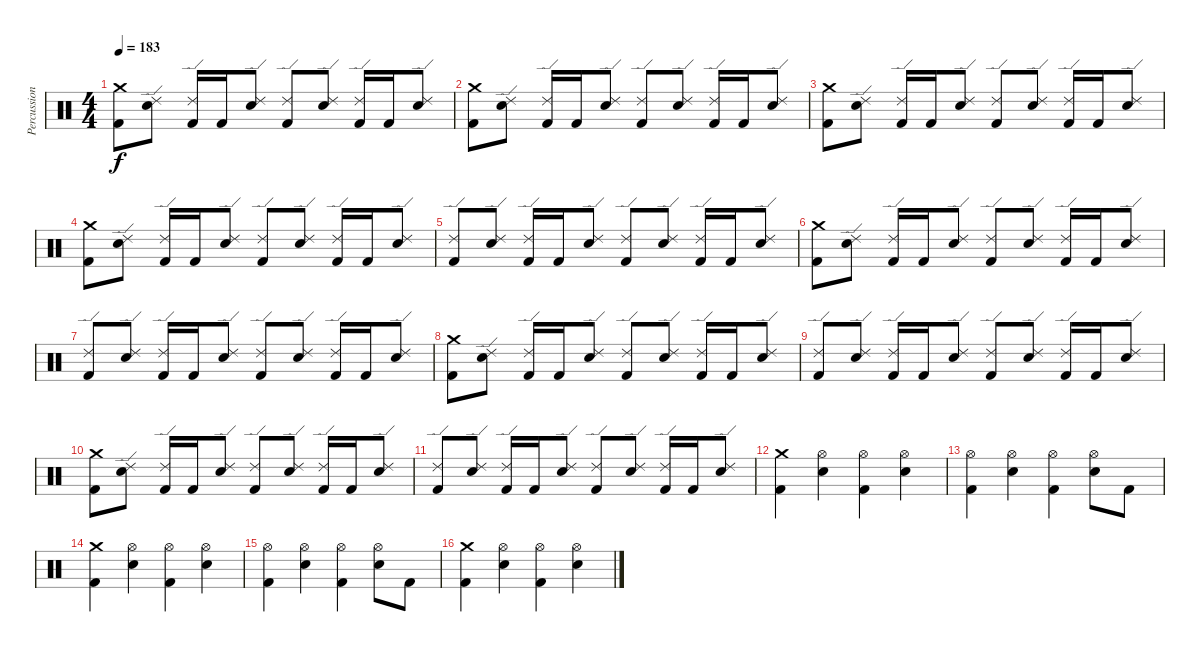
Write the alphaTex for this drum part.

\track ("Percussion" "Percussion") {instrument percussion}
\staff {score}
\articulation defaults
\ts (4 4)
\tempo 183
\clef neutral
\ks c
("Crash medium (hit)" "Kick (hit) 2").8{dy f} ("Ride (edge) 2" "Snare (hit) 2").8 ("Ride (edge) 2" "Kick (hit) 2").16 "Kick (hit) 2".16 ("Ride (edge) 2" "Snare (hit) 2").8 ("Ride (edge) 2" "Kick (hit) 2").8 ("Ride (edge) 2" "Snare (hit) 2").8 ("Ride (edge) 2" "Kick (hit) 2").16 "Kick (hit) 2".16 ("Ride (edge) 2" "Snare (hit) 2").8 |
("Crash medium (hit)" "Kick (hit) 2").8 ("Ride (edge) 2" "Snare (hit) 2").8 ("Ride (edge) 2" "Kick (hit) 2").16 "Kick (hit) 2".16 ("Ride (edge) 2" "Snare (hit) 2").8 ("Ride (edge) 2" "Kick (hit) 2").8 ("Ride (edge) 2" "Snare (hit) 2").8 ("Ride (edge) 2" "Kick (hit) 2").16 "Kick (hit) 2".16 ("Ride (edge) 2" "Snare (hit) 2").8 |
("Crash medium (hit)" "Kick (hit) 2").8 ("Ride (edge) 2" "Snare (hit) 2").8 ("Ride (edge) 2" "Kick (hit) 2").16 "Kick (hit) 2".16 ("Ride (edge) 2" "Snare (hit) 2").8 ("Ride (edge) 2" "Kick (hit) 2").8 ("Ride (edge) 2" "Snare (hit) 2").8 ("Ride (edge) 2" "Kick (hit) 2").16 "Kick (hit) 2".16 ("Ride (edge) 2" "Snare (hit) 2").8 |
("Crash medium (hit)" "Kick (hit) 2").8 ("Ride (edge) 2" "Snare (hit) 2").8 ("Ride (edge) 2" "Kick (hit) 2").16 "Kick (hit) 2".16 ("Ride (edge) 2" "Snare (hit) 2").8 ("Ride (edge) 2" "Kick (hit) 2").8 ("Ride (edge) 2" "Snare (hit) 2").8 ("Ride (edge) 2" "Kick (hit) 2").16 "Kick (hit) 2".16 ("Ride (edge) 2" "Snare (hit) 2").8 |
("Ride (edge) 2" "Kick (hit) 2").8 ("Ride (edge) 2" "Snare (hit) 2").8 ("Ride (edge) 2" "Kick (hit) 2").16 "Kick (hit) 2".16 ("Ride (edge) 2" "Snare (hit) 2").8 ("Ride (edge) 2" "Kick (hit) 2").8 ("Ride (edge) 2" "Snare (hit) 2").8 ("Ride (edge) 2" "Kick (hit) 2").16 "Kick (hit) 2".16 ("Ride (edge) 2" "Snare (hit) 2").8 |
("Crash medium (hit)" "Kick (hit) 2").8 ("Ride (edge) 2" "Snare (hit) 2").8 ("Ride (edge) 2" "Kick (hit) 2").16 "Kick (hit) 2".16 ("Ride (edge) 2" "Snare (hit) 2").8 ("Ride (edge) 2" "Kick (hit) 2").8 ("Ride (edge) 2" "Snare (hit) 2").8 ("Ride (edge) 2" "Kick (hit) 2").16 "Kick (hit) 2".16 ("Ride (edge) 2" "Snare (hit) 2").8 |
("Ride (edge) 2" "Kick (hit) 2").8 ("Ride (edge) 2" "Snare (hit) 2").8 ("Ride (edge) 2" "Kick (hit) 2").16 "Kick (hit) 2".16 ("Ride (edge) 2" "Snare (hit) 2").8 ("Ride (edge) 2" "Kick (hit) 2").8 ("Ride (edge) 2" "Snare (hit) 2").8 ("Ride (edge) 2" "Kick (hit) 2").16 "Kick (hit) 2".16 ("Ride (edge) 2" "Snare (hit) 2").8 |
("Crash medium (hit)" "Kick (hit) 2").8 ("Ride (edge) 2" "Snare (hit) 2").8 ("Ride (edge) 2" "Kick (hit) 2").16 "Kick (hit) 2".16 ("Ride (edge) 2" "Snare (hit) 2").8 ("Ride (edge) 2" "Kick (hit) 2").8 ("Ride (edge) 2" "Snare (hit) 2").8 ("Ride (edge) 2" "Kick (hit) 2").16 "Kick (hit) 2".16 ("Ride (edge) 2" "Snare (hit) 2").8 |
("Ride (edge) 2" "Kick (hit) 2").8 ("Ride (edge) 2" "Snare (hit) 2").8 ("Ride (edge) 2" "Kick (hit) 2").16 "Kick (hit) 2".16 ("Ride (edge) 2" "Snare (hit) 2").8 ("Ride (edge) 2" "Kick (hit) 2").8 ("Ride (edge) 2" "Snare (hit) 2").8 ("Ride (edge) 2" "Kick (hit) 2").16 "Kick (hit) 2".16 ("Ride (edge) 2" "Snare (hit) 2").8 |
("Crash medium (hit)" "Kick (hit) 2").8 ("Ride (edge) 2" "Snare (hit) 2").8 ("Ride (edge) 2" "Kick (hit) 2").16 "Kick (hit) 2".16 ("Ride (edge) 2" "Snare (hit) 2").8 ("Ride (edge) 2" "Kick (hit) 2").8 ("Ride (edge) 2" "Snare (hit) 2").8 ("Ride (edge) 2" "Kick (hit) 2").16 "Kick (hit) 2".16 ("Ride (edge) 2" "Snare (hit) 2").8 |
("Ride (edge) 2" "Kick (hit) 2").8 ("Ride (edge) 2" "Snare (hit) 2").8 ("Ride (edge) 2" "Kick (hit) 2").16 "Kick (hit) 2".16 ("Ride (edge) 2" "Snare (hit) 2").8 ("Ride (edge) 2" "Kick (hit) 2").8 ("Ride (edge) 2" "Snare (hit) 2").8 ("Ride (edge) 2" "Kick (hit) 2").16 "Kick (hit) 2".16 ("Ride (edge) 2" "Snare (hit) 2").8 |
("Crash medium (hit)" "Kick (hit) 2").4 ("Hi-Hat (open)" "Snare (hit) 2").4 ("Hi-Hat (open)" "Kick (hit) 2").4 ("Hi-Hat (open)" "Snare (hit) 2").4 |
("Hi-Hat (open)" "Kick (hit) 2").4 ("Hi-Hat (open)" "Snare (hit) 2").4 ("Hi-Hat (open)" "Kick (hit) 2").4 ("Hi-Hat (open)" "Snare (hit) 2").8 "Kick (hit) 2".8 |
("Crash medium (hit)" "Kick (hit) 2").4 ("Hi-Hat (open)" "Snare (hit) 2").4 ("Hi-Hat (open)" "Kick (hit) 2").4 ("Hi-Hat (open)" "Snare (hit) 2").4 |
("Hi-Hat (open)" "Kick (hit) 2").4 ("Hi-Hat (open)" "Snare (hit) 2").4 ("Hi-Hat (open)" "Kick (hit) 2").4 ("Hi-Hat (open)" "Snare (hit) 2").8 "Kick (hit) 2".8 |
("Crash medium (hit)" "Kick (hit) 2").4 ("Hi-Hat (open)" "Snare (hit) 2").4 ("Hi-Hat (open)" "Kick (hit) 2").4 ("Hi-Hat (open)" "Snare (hit) 2").4
